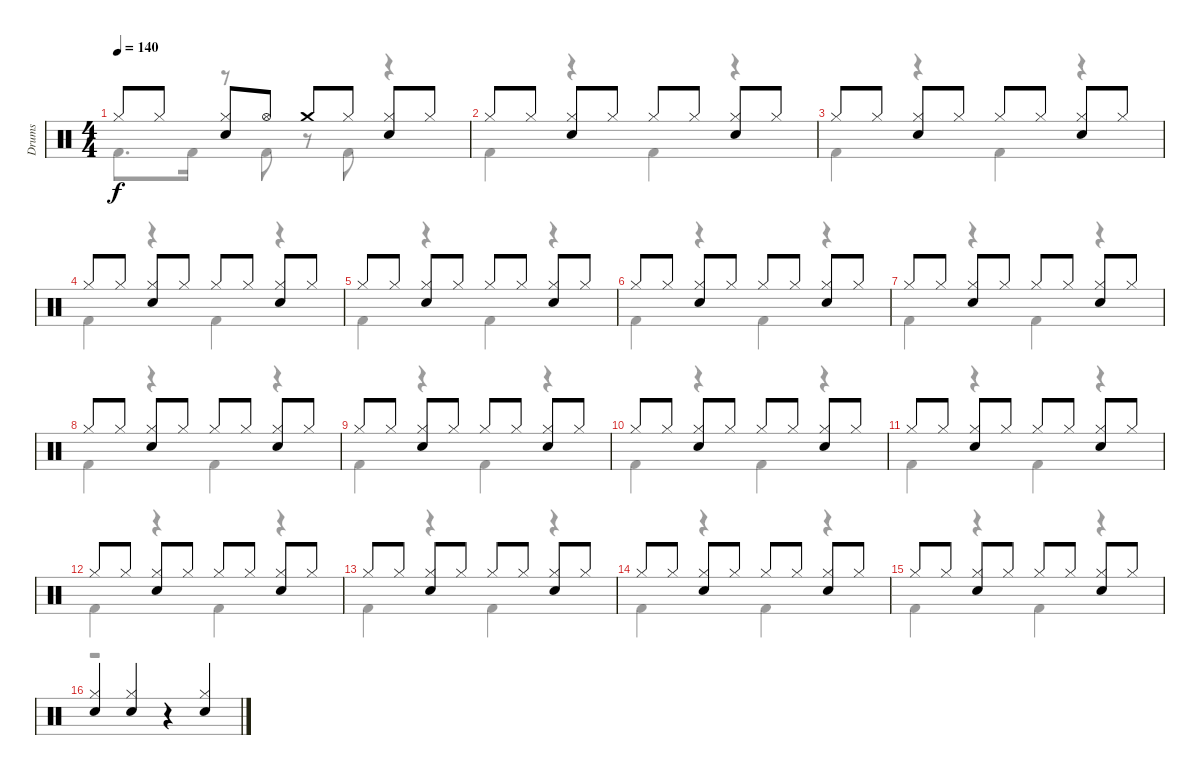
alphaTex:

\track ("Drums" "Drums") {instrument percussion}
\staff {score}
\articulation defaults
\voice
\ts (4 4)
\tempo 140
\clef neutral
\ks c "Hi-Hat (closed)".8{dy f} "Hi-Hat (closed)".8
("Hi-Hat (closed)" "Snare (hit) 2").8 "Hi-Hat (open)".8 "Crash medium (hit)".8 "Hi-Hat (closed)".8 ("Hi-Hat (closed)" "Snare (hit) 2").8 "Hi-Hat (closed)".8 |
"Hi-Hat (closed)".8 "Hi-Hat (closed)".8 ("Hi-Hat (closed)" "Snare (hit) 2").8 "Hi-Hat (closed)".8 "Hi-Hat (closed)".8 "Hi-Hat (closed)".8 ("Hi-Hat (closed)" "Snare (hit) 2").8 "Hi-Hat (closed)".8 |
"Hi-Hat (closed)".8 "Hi-Hat (closed)".8 ("Hi-Hat (closed)" "Snare (hit) 2").8 "Hi-Hat (closed)".8 "Hi-Hat (closed)".8 "Hi-Hat (closed)".8 ("Hi-Hat (closed)" "Snare (hit) 2").8 "Hi-Hat (closed)".8 |
"Hi-Hat (closed)".8 "Hi-Hat (closed)".8 ("Hi-Hat (closed)" "Snare (hit) 2").8 "Hi-Hat (closed)".8 "Hi-Hat (closed)".8 "Hi-Hat (closed)".8 ("Hi-Hat (closed)" "Snare (hit) 2").8 "Hi-Hat (closed)".8 |
"Hi-Hat (closed)".8 "Hi-Hat (closed)".8 ("Hi-Hat (closed)" "Snare (hit) 2").8 "Hi-Hat (closed)".8 "Hi-Hat (closed)".8 "Hi-Hat (closed)".8 ("Hi-Hat (closed)" "Snare (hit) 2").8 "Hi-Hat (closed)".8 |
"Hi-Hat (closed)".8 "Hi-Hat (closed)".8 ("Hi-Hat (closed)" "Snare (hit) 2").8 "Hi-Hat (closed)".8 "Hi-Hat (closed)".8 "Hi-Hat (closed)".8 ("Hi-Hat (closed)" "Snare (hit) 2").8 "Hi-Hat (closed)".8 |
"Hi-Hat (closed)".8 "Hi-Hat (closed)".8 ("Hi-Hat (closed)" "Snare (hit) 2").8 "Hi-Hat (closed)".8 "Hi-Hat (closed)".8 "Hi-Hat (closed)".8 ("Hi-Hat (closed)" "Snare (hit) 2").8 "Hi-Hat (closed)".8 |
"Hi-Hat (closed)".8 "Hi-Hat (closed)".8 ("Hi-Hat (closed)" "Snare (hit) 2").8 "Hi-Hat (closed)".8 "Hi-Hat (closed)".8 "Hi-Hat (closed)".8 ("Hi-Hat (closed)" "Snare (hit) 2").8 "Hi-Hat (closed)".8 |
"Hi-Hat (closed)".8 "Hi-Hat (closed)".8 ("Hi-Hat (closed)" "Snare (hit) 2").8 "Hi-Hat (closed)".8 "Hi-Hat (closed)".8 "Hi-Hat (closed)".8 ("Hi-Hat (closed)" "Snare (hit) 2").8 "Hi-Hat (closed)".8 |
"Hi-Hat (closed)".8 "Hi-Hat (closed)".8 ("Hi-Hat (closed)" "Snare (hit) 2").8 "Hi-Hat (closed)".8 "Hi-Hat (closed)".8 "Hi-Hat (closed)".8 ("Hi-Hat (closed)" "Snare (hit) 2").8 "Hi-Hat (closed)".8 |
"Hi-Hat (closed)".8 "Hi-Hat (closed)".8 ("Hi-Hat (closed)" "Snare (hit) 2").8 "Hi-Hat (closed)".8 "Hi-Hat (closed)".8 "Hi-Hat (closed)".8 ("Hi-Hat (closed)" "Snare (hit) 2").8 "Hi-Hat (closed)".8 |
"Hi-Hat (closed)".8 "Hi-Hat (closed)".8 ("Hi-Hat (closed)" "Snare (hit) 2").8 "Hi-Hat (closed)".8 "Hi-Hat (closed)".8 "Hi-Hat (closed)".8 ("Hi-Hat (closed)" "Snare (hit) 2").8 "Hi-Hat (closed)".8 |
"Hi-Hat (closed)".8 "Hi-Hat (closed)".8 ("Hi-Hat (closed)" "Snare (hit) 2").8 "Hi-Hat (closed)".8 "Hi-Hat (closed)".8 "Hi-Hat (closed)".8 ("Hi-Hat (closed)" "Snare (hit) 2").8 "Hi-Hat (closed)".8 |
"Hi-Hat (closed)".8 "Hi-Hat (closed)".8 ("Hi-Hat (closed)" "Snare (hit) 2").8 "Hi-Hat (closed)".8 "Hi-Hat (closed)".8 "Hi-Hat (closed)".8 ("Hi-Hat (closed)" "Snare (hit) 2").8 "Hi-Hat (closed)".8 |
"Hi-Hat (closed)".8 "Hi-Hat (closed)".8 ("Hi-Hat (closed)" "Snare (hit) 2").8 "Hi-Hat (closed)".8 "Hi-Hat (closed)".8 "Hi-Hat (closed)".8 ("Hi-Hat (closed)" "Snare (hit) 2").8 "Hi-Hat (closed)".8 |
("Hi-Hat (closed)" "Snare (hit) 2").4 ("Hi-Hat (closed)" "Snare (hit) 2").4 r.4 ("Hi-Hat (closed)" "Snare (hit) 2").4
\voice
\clef neutral
\ottava regular
\simile none
\ks c "Kick (hit) 2".8{d dy f} "Kick (hit) 2".16
r.8 "Kick (hit) 2".8 r.8 "Kick (hit) 2".8 r.4 |
"Kick (hit) 2".4 r.4 "Kick (hit) 2".4 r.4 |
"Kick (hit) 2".4 r.4 "Kick (hit) 2".4 r.4 |
"Kick (hit) 2".4 r.4 "Kick (hit) 2".4 r.4 |
"Kick (hit) 2".4 r.4 "Kick (hit) 2".4 r.4 |
"Kick (hit) 2".4 r.4 "Kick (hit) 2".4 r.4 |
"Kick (hit) 2".4 r.4 "Kick (hit) 2".4 r.4 |
"Kick (hit) 2".4 r.4 "Kick (hit) 2".4 r.4 |
"Kick (hit) 2".4 r.4 "Kick (hit) 2".4 r.4 |
"Kick (hit) 2".4 r.4 "Kick (hit) 2".4 r.4 |
"Kick (hit) 2".4 r.4 "Kick (hit) 2".4 r.4 |
"Kick (hit) 2".4 r.4 "Kick (hit) 2".4 r.4 |
"Kick (hit) 2".4 r.4 "Kick (hit) 2".4 r.4 |
"Kick (hit) 2".4 r.4 "Kick (hit) 2".4 r.4 |
"Kick (hit) 2".4 r.4 "Kick (hit) 2".4 r.4 |
r.1
